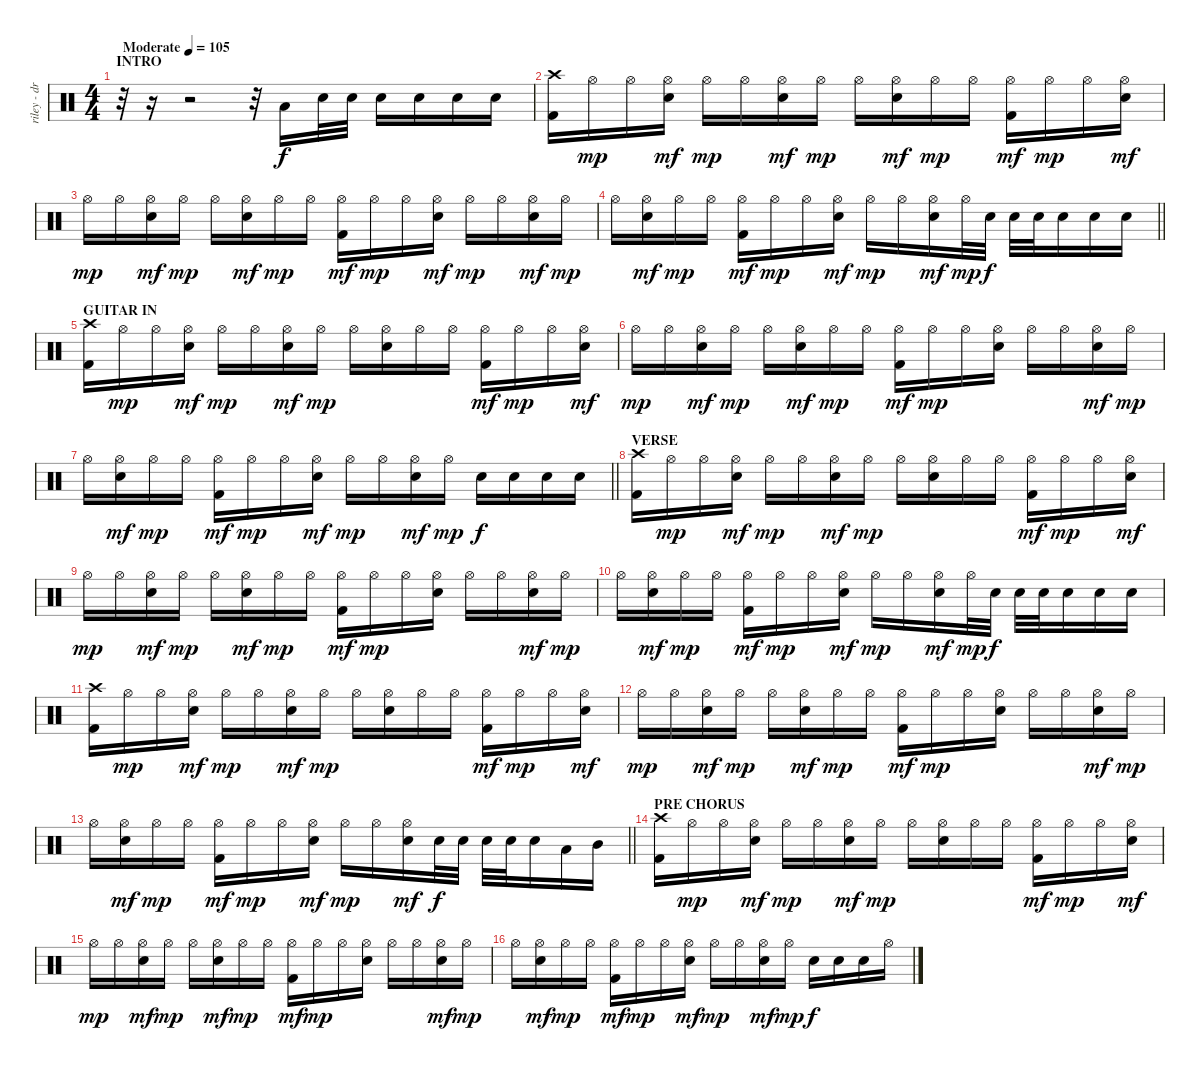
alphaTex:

\track ("riley - drums" "riley - dr") {instrument percussion}
\staff {score}
\articulation defaults
\ts (4 4)
\section ("" "INTRO")
\tempo (105 "Moderate")
\clef neutral
\ks c
r.32{dy f} r.16 r.2 r.32 "Low Tom (hit)".16 "Electric Snare (hit)".32 "Electric Snare (hit)".32 "Electric Snare (hit)".16 "Electric Snare (hit)".16 "Electric Snare (hit)".16 "Electric Snare (hit)".16 |
("Kick (hit) 2" "Crash high (hit)").16 "Hi-Hat (open)".16{dy mp} "Hi-Hat (open)".16 ("Electric Snare (hit)" "Hi-Hat (open)").16{dy mf} "Hi-Hat (open)".16{dy mp} "Hi-Hat (open)".16 ("Electric Snare (hit)" "Hi-Hat (open)").16{dy mf} "Hi-Hat (open)".16{dy mp} "Hi-Hat (open)".16 ("Electric Snare (hit)" "Hi-Hat (open)").16{dy mf} "Hi-Hat (open)".16{dy mp} "Hi-Hat (open)".16 ("Kick (hit) 2" "Hi-Hat (open)").16{dy mf} "Hi-Hat (open)".16{dy mp} "Hi-Hat (open)".16 ("Electric Snare (hit)" "Hi-Hat (open)").16{dy mf} |
"Hi-Hat (open)".16{dy mp} "Hi-Hat (open)".16 ("Electric Snare (hit)" "Hi-Hat (open)").16{dy mf} "Hi-Hat (open)".16{dy mp} "Hi-Hat (open)".16 ("Electric Snare (hit)" "Hi-Hat (open)").16{dy mf} "Hi-Hat (open)".16{dy mp} "Hi-Hat (open)".16 ("Kick (hit) 2" "Hi-Hat (open)").16{dy mf} "Hi-Hat (open)".16{dy mp} "Hi-Hat (open)".16 ("Electric Snare (hit)" "Hi-Hat (open)").16{dy mf} "Hi-Hat (open)".16{dy mp} "Hi-Hat (open)".16 ("Electric Snare (hit)" "Hi-Hat (open)").16{dy mf} "Hi-Hat (open)".16{dy mp} |
\barLineRight lightlight "Hi-Hat (open)".16
("Electric Snare (hit)" "Hi-Hat (open)").16{dy mf} "Hi-Hat (open)".16{dy mp} "Hi-Hat (open)".16 ("Kick (hit) 2" "Hi-Hat (open)").16{dy mf} "Hi-Hat (open)".16{dy mp} "Hi-Hat (open)".16 ("Electric Snare (hit)" "Hi-Hat (open)").16{dy mf} "Hi-Hat (open)".16{dy mp} "Hi-Hat (open)".16 ("Electric Snare (hit)" "Hi-Hat (open)").16{dy mf} "Hi-Hat (open)".32{dy mp} "Electric Snare (hit)".32{dy f} "Electric Snare (hit)".32 "Electric Snare (hit)".32 "Electric Snare (hit)".16 "Electric Snare (hit)".16 "Electric Snare (hit)".16 |
\section ("" "GUITAR IN")
("Kick (hit) 2" "Crash high (hit)").16 "Hi-Hat (open)".16{dy mp} "Hi-Hat (open)".16 ("Electric Snare (hit)" "Hi-Hat (open)").16{dy mf} "Hi-Hat (open)".16{dy mp} "Hi-Hat (open)".16 ("Electric Snare (hit)" "Hi-Hat (open)").16{dy mf} "Hi-Hat (open)".16{dy mp} "Hi-Hat (open)".16 ("Electric Snare (hit)" "Hi-Hat (open)").16 "Hi-Hat (open)".16 "Hi-Hat (open)".16 ("Kick (hit) 2" "Hi-Hat (open)").16{dy mf} "Hi-Hat (open)".16{dy mp} "Hi-Hat (open)".16 ("Electric Snare (hit)" "Hi-Hat (open)").16{dy mf} |
"Hi-Hat (open)".16{dy mp} "Hi-Hat (open)".16 ("Electric Snare (hit)" "Hi-Hat (open)").16{dy mf} "Hi-Hat (open)".16{dy mp} "Hi-Hat (open)".16 ("Electric Snare (hit)" "Hi-Hat (open)").16{dy mf} "Hi-Hat (open)".16{dy mp} "Hi-Hat (open)".16 ("Kick (hit) 2" "Hi-Hat (open)").16{dy mf} "Hi-Hat (open)".16{dy mp} "Hi-Hat (open)".16 ("Electric Snare (hit)" "Hi-Hat (open)").16 "Hi-Hat (open)".16 "Hi-Hat (open)".16 ("Electric Snare (hit)" "Hi-Hat (open)").16{dy mf} "Hi-Hat (open)".16{dy mp} |
\barLineRight lightlight "Hi-Hat (open)".16
("Electric Snare (hit)" "Hi-Hat (open)").16{dy mf} "Hi-Hat (open)".16{dy mp} "Hi-Hat (open)".16 ("Kick (hit) 2" "Hi-Hat (open)").16{dy mf} "Hi-Hat (open)".16{dy mp} "Hi-Hat (open)".16 ("Electric Snare (hit)" "Hi-Hat (open)").16{dy mf} "Hi-Hat (open)".16{dy mp} "Hi-Hat (open)".16 ("Electric Snare (hit)" "Hi-Hat (open)").16{dy mf} "Hi-Hat (open)".16{dy mp} "Electric Snare (hit)".16{dy f} "Electric Snare (hit)".16 "Electric Snare (hit)".16 "Electric Snare (hit)".16 |
\section ("" "VERSE")
("Kick (hit) 2" "Crash high (hit)").16 "Hi-Hat (open)".16{dy mp} "Hi-Hat (open)".16 ("Electric Snare (hit)" "Hi-Hat (open)").16{dy mf} "Hi-Hat (open)".16{dy mp} "Hi-Hat (open)".16 ("Electric Snare (hit)" "Hi-Hat (open)").16{dy mf} "Hi-Hat (open)".16{dy mp} "Hi-Hat (open)".16 ("Electric Snare (hit)" "Hi-Hat (open)").16 "Hi-Hat (open)".16 "Hi-Hat (open)".16 ("Kick (hit) 2" "Hi-Hat (open)").16{dy mf} "Hi-Hat (open)".16{dy mp} "Hi-Hat (open)".16 ("Electric Snare (hit)" "Hi-Hat (open)").16{dy mf} |
"Hi-Hat (open)".16{dy mp} "Hi-Hat (open)".16 ("Electric Snare (hit)" "Hi-Hat (open)").16{dy mf} "Hi-Hat (open)".16{dy mp} "Hi-Hat (open)".16 ("Electric Snare (hit)" "Hi-Hat (open)").16{dy mf} "Hi-Hat (open)".16{dy mp} "Hi-Hat (open)".16 ("Kick (hit) 2" "Hi-Hat (open)").16{dy mf} "Hi-Hat (open)".16{dy mp} "Hi-Hat (open)".16 ("Electric Snare (hit)" "Hi-Hat (open)").16 "Hi-Hat (open)".16 "Hi-Hat (open)".16 ("Electric Snare (hit)" "Hi-Hat (open)").16{dy mf} "Hi-Hat (open)".16{dy mp} |
"Hi-Hat (open)".16 ("Electric Snare (hit)" "Hi-Hat (open)").16{dy mf} "Hi-Hat (open)".16{dy mp} "Hi-Hat (open)".16 ("Kick (hit) 2" "Hi-Hat (open)").16{dy mf} "Hi-Hat (open)".16{dy mp} "Hi-Hat (open)".16 ("Electric Snare (hit)" "Hi-Hat (open)").16{dy mf} "Hi-Hat (open)".16{dy mp} "Hi-Hat (open)".16 ("Electric Snare (hit)" "Hi-Hat (open)").16{dy mf} "Hi-Hat (open)".32{dy mp} "Electric Snare (hit)".32{dy f} "Electric Snare (hit)".32 "Electric Snare (hit)".32 "Electric Snare (hit)".16 "Electric Snare (hit)".16 "Electric Snare (hit)".16 |
("Kick (hit) 2" "Crash high (hit)").16 "Hi-Hat (open)".16{dy mp} "Hi-Hat (open)".16 ("Electric Snare (hit)" "Hi-Hat (open)").16{dy mf} "Hi-Hat (open)".16{dy mp} "Hi-Hat (open)".16 ("Electric Snare (hit)" "Hi-Hat (open)").16{dy mf} "Hi-Hat (open)".16{dy mp} "Hi-Hat (open)".16 ("Electric Snare (hit)" "Hi-Hat (open)").16 "Hi-Hat (open)".16 "Hi-Hat (open)".16 ("Kick (hit) 2" "Hi-Hat (open)").16{dy mf} "Hi-Hat (open)".16{dy mp} "Hi-Hat (open)".16 ("Electric Snare (hit)" "Hi-Hat (open)").16{dy mf} |
"Hi-Hat (open)".16{dy mp} "Hi-Hat (open)".16 ("Electric Snare (hit)" "Hi-Hat (open)").16{dy mf} "Hi-Hat (open)".16{dy mp} "Hi-Hat (open)".16 ("Electric Snare (hit)" "Hi-Hat (open)").16{dy mf} "Hi-Hat (open)".16{dy mp} "Hi-Hat (open)".16 ("Kick (hit) 2" "Hi-Hat (open)").16{dy mf} "Hi-Hat (open)".16{dy mp} "Hi-Hat (open)".16 ("Electric Snare (hit)" "Hi-Hat (open)").16 "Hi-Hat (open)".16 "Hi-Hat (open)".16 ("Electric Snare (hit)" "Hi-Hat (open)").16{dy mf} "Hi-Hat (open)".16{dy mp} |
\barLineRight lightlight "Hi-Hat (open)".16
("Electric Snare (hit)" "Hi-Hat (open)").16{dy mf} "Hi-Hat (open)".16{dy mp} "Hi-Hat (open)".16 ("Kick (hit) 2" "Hi-Hat (open)").16{dy mf} "Hi-Hat (open)".16{dy mp} "Hi-Hat (open)".16 ("Electric Snare (hit)" "Hi-Hat (open)").16{dy mf} "Hi-Hat (open)".16{dy mp} "Hi-Hat (open)".16 ("Electric Snare (hit)" "Hi-Hat (open)").16{dy mf} "Electric Snare (hit)".32{dy f} "Electric Snare (hit)".32 "Electric Snare (hit)".32 "Electric Snare (hit)".32 "Electric Snare (hit)".16 "Low Tom (hit)".16 "Mid Tom (hit)".16 |
\section ("" "PRE CHORUS")
("Kick (hit) 2" "Crash high (hit)").16 "Hi-Hat (open)".16{dy mp} "Hi-Hat (open)".16 ("Electric Snare (hit)" "Hi-Hat (open)").16{dy mf} "Hi-Hat (open)".16{dy mp} "Hi-Hat (open)".16 ("Electric Snare (hit)" "Hi-Hat (open)").16{dy mf} "Hi-Hat (open)".16{dy mp} "Hi-Hat (open)".16 ("Electric Snare (hit)" "Hi-Hat (open)").16 "Hi-Hat (open)".16 "Hi-Hat (open)".16 ("Kick (hit) 2" "Hi-Hat (open)").16{dy mf} "Hi-Hat (open)".16{dy mp} "Hi-Hat (open)".16 ("Electric Snare (hit)" "Hi-Hat (open)").16{dy mf} |
"Hi-Hat (open)".16{dy mp} "Hi-Hat (open)".16 ("Electric Snare (hit)" "Hi-Hat (open)").16{dy mf} "Hi-Hat (open)".16{dy mp} "Hi-Hat (open)".16 ("Electric Snare (hit)" "Hi-Hat (open)").16{dy mf} "Hi-Hat (open)".16{dy mp} "Hi-Hat (open)".16 ("Kick (hit) 2" "Hi-Hat (open)").16{dy mf} "Hi-Hat (open)".16{dy mp} "Hi-Hat (open)".16 ("Electric Snare (hit)" "Hi-Hat (open)").16 "Hi-Hat (open)".16 "Hi-Hat (open)".16 ("Electric Snare (hit)" "Hi-Hat (open)").16{dy mf} "Hi-Hat (open)".16{dy mp} |
"Hi-Hat (open)".16 ("Electric Snare (hit)" "Hi-Hat (open)").16{dy mf} "Hi-Hat (open)".16{dy mp} "Hi-Hat (open)".16 ("Kick (hit) 2" "Hi-Hat (open)").16{dy mf} "Hi-Hat (open)".16{dy mp} "Hi-Hat (open)".16 ("Electric Snare (hit)" "Hi-Hat (open)").16{dy mf} "Hi-Hat (open)".16{dy mp} "Hi-Hat (open)".16 ("Electric Snare (hit)" "Hi-Hat (open)").16{dy mf} "Hi-Hat (open)".16{dy mp} "Electric Snare (hit)".16{dy f} "Electric Snare (hit)".16 "Electric Snare (hit)".16 "Hi-Hat (open)".16
